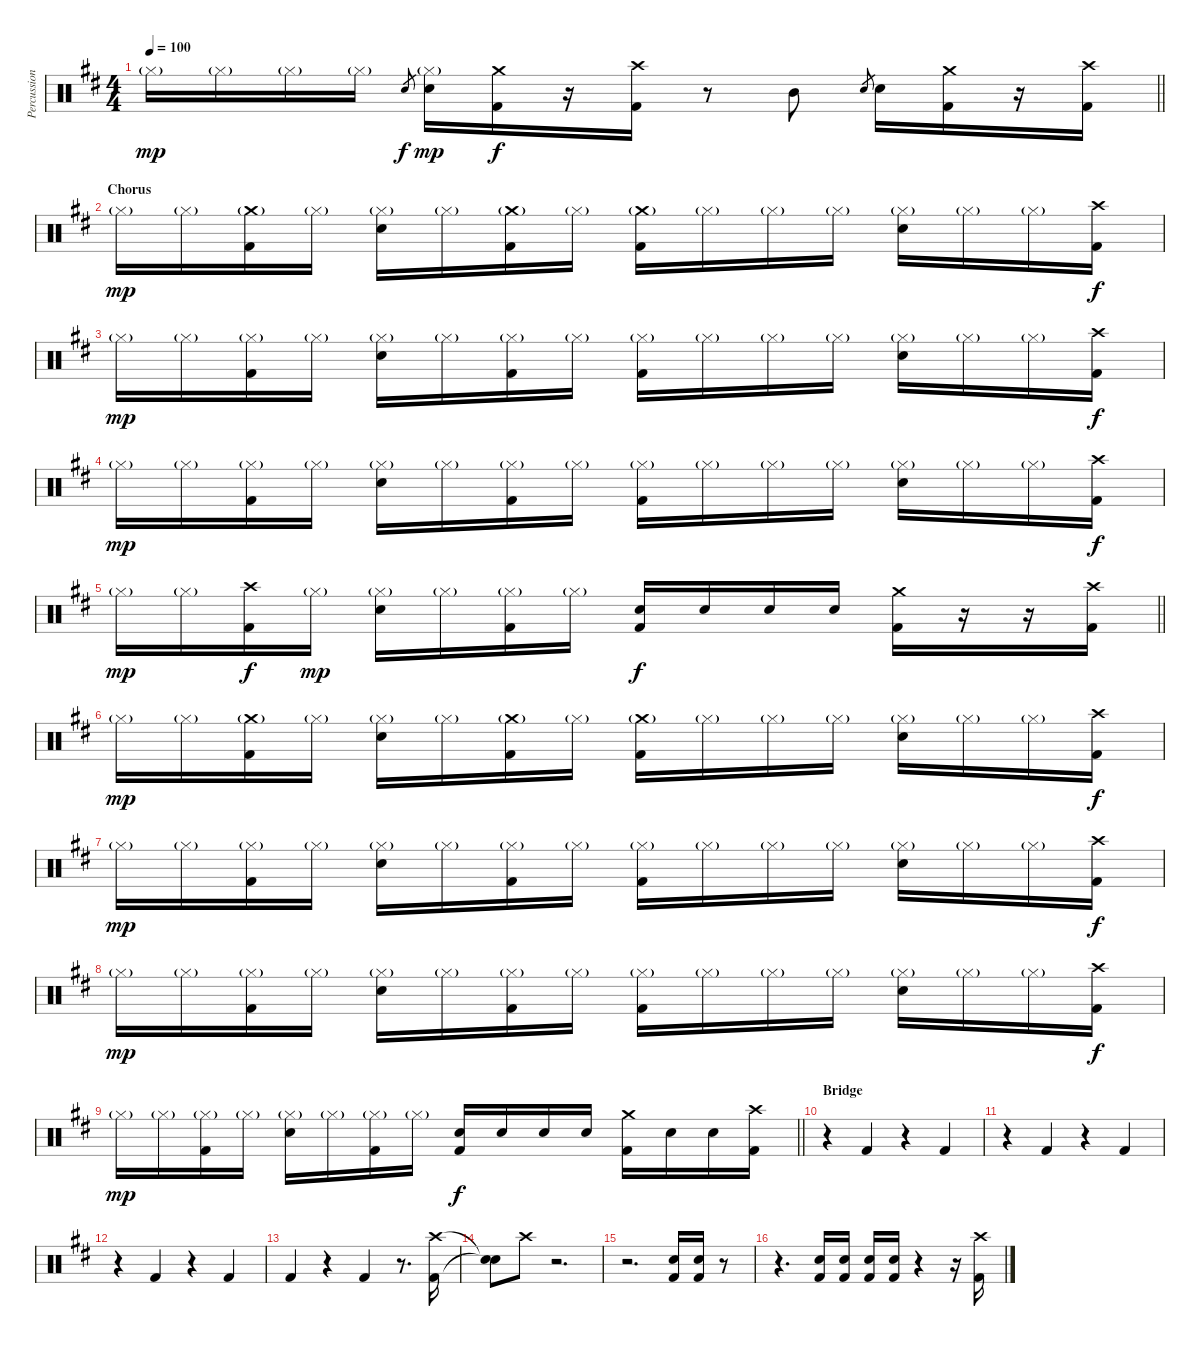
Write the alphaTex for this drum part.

\track ("Percussion" "Percussion") {instrument percussion}
\staff {score}
\articulation defaults
\ts (4 4)
\tempo 100
\clef neutral
\barLineRight lightlight
\ks bminor "Hi-Hat (closed)"{g}.16{dy mp} "Hi-Hat (closed)"{g}.16 "Hi-Hat (closed)"{g}.16 "Hi-Hat (closed)"{g}.16 "Snare (hit) 2"{x}.8{gr dy f}
("Hi-Hat (closed)"{g} "Snare (hit) 2").16{dy mp} ("Crash medium (hit)" "Kick (hit) 2").16{dy f} r.16 ("Crash high (hit)" "Kick (hit) 2").16 r.8 "Mid Tom (hit)".8 "Snare (hit) 2".8{gr} "Snare (hit) 2".16 ("Crash medium (hit)" "Kick (hit) 2").16 r.16 ("Crash high (hit)" "Kick (hit) 2").16 |
\section ("" "Chorus")
"Hi-Hat (closed)"{g}.16{dy mp} "Hi-Hat (closed)"{g}.16 ("Crash medium (hit)"{g} "Kick (hit) 2").16 "Hi-Hat (closed)"{g}.16 ("Hi-Hat (closed)"{g} "Snare (hit) 2").16 "Hi-Hat (closed)"{g}.16 ("Crash medium (hit)"{g} "Kick (hit) 2").16 "Hi-Hat (closed)"{g}.16 ("Crash medium (hit)"{g} "Kick (hit) 2").16 "Hi-Hat (closed)"{g}.16 "Hi-Hat (closed)"{g}.16 "Hi-Hat (closed)"{g}.16 ("Hi-Hat (closed)"{g} "Snare (hit) 2").16 "Hi-Hat (closed)"{g}.16 "Hi-Hat (closed)"{g}.16 ("Crash high (hit)" "Kick (hit) 2").16{dy f} |
"Hi-Hat (closed)"{g}.16{dy mp} "Hi-Hat (closed)"{g}.16 ("Hi-Hat (closed)"{g} "Kick (hit) 2").16 "Hi-Hat (closed)"{g}.16 ("Hi-Hat (closed)"{g} "Snare (hit) 2").16 "Hi-Hat (closed)"{g}.16 ("Hi-Hat (closed)"{g} "Kick (hit) 2").16 "Hi-Hat (closed)"{g}.16 ("Hi-Hat (closed)"{g} "Kick (hit) 2").16 "Hi-Hat (closed)"{g}.16 "Hi-Hat (closed)"{g}.16 "Hi-Hat (closed)"{g}.16 ("Hi-Hat (closed)"{g} "Snare (hit) 2").16 "Hi-Hat (closed)"{g}.16 "Hi-Hat (closed)"{g}.16 ("Crash high (hit)" "Kick (hit) 2").16{dy f} |
"Hi-Hat (closed)"{g}.16{dy mp} "Hi-Hat (closed)"{g}.16 ("Hi-Hat (closed)"{g} "Kick (hit) 2").16 "Hi-Hat (closed)"{g}.16 ("Hi-Hat (closed)"{g} "Snare (hit) 2").16 "Hi-Hat (closed)"{g}.16 ("Hi-Hat (closed)"{g} "Kick (hit) 2").16 "Hi-Hat (closed)"{g}.16 ("Hi-Hat (closed)"{g} "Kick (hit) 2").16 "Hi-Hat (closed)"{g}.16 "Hi-Hat (closed)"{g}.16 "Hi-Hat (closed)"{g}.16 ("Hi-Hat (closed)"{g} "Snare (hit) 2").16 "Hi-Hat (closed)"{g}.16 "Hi-Hat (closed)"{g}.16 ("Crash high (hit)" "Kick (hit) 2").16{dy f} |
\barLineRight lightlight "Hi-Hat (closed)"{g}.16{dy mp} "Hi-Hat (closed)"{g}.16
("Crash high (hit)" "Kick (hit) 2").16{dy f} "Hi-Hat (closed)"{g}.16{dy mp} ("Hi-Hat (closed)"{g} "Snare (hit) 2").16 "Hi-Hat (closed)"{g}.16 ("Hi-Hat (closed)"{g} "Kick (hit) 2").16 "Hi-Hat (closed)"{g}.16 ("Snare (hit) 2" "Kick (hit) 2").16{dy f} "Snare (hit) 2".16 "Snare (hit) 2".16 "Snare (hit) 2".16 ("Crash medium (hit)" "Kick (hit) 2").16 r.16 r.16 ("Crash high (hit)" "Kick (hit) 2").16 |
"Hi-Hat (closed)"{g}.16{dy mp} "Hi-Hat (closed)"{g}.16 ("Crash medium (hit)"{g} "Kick (hit) 2").16 "Hi-Hat (closed)"{g}.16 ("Hi-Hat (closed)"{g} "Snare (hit) 2").16 "Hi-Hat (closed)"{g}.16 ("Crash medium (hit)"{g} "Kick (hit) 2").16 "Hi-Hat (closed)"{g}.16 ("Crash medium (hit)"{g} "Kick (hit) 2").16 "Hi-Hat (closed)"{g}.16 "Hi-Hat (closed)"{g}.16 "Hi-Hat (closed)"{g}.16 ("Hi-Hat (closed)"{g} "Snare (hit) 2").16 "Hi-Hat (closed)"{g}.16 "Hi-Hat (closed)"{g}.16 ("Crash high (hit)" "Kick (hit) 2").16{dy f} |
"Hi-Hat (closed)"{g}.16{dy mp} "Hi-Hat (closed)"{g}.16 ("Hi-Hat (closed)"{g} "Kick (hit) 2").16 "Hi-Hat (closed)"{g}.16 ("Hi-Hat (closed)"{g} "Snare (hit) 2").16 "Hi-Hat (closed)"{g}.16 ("Hi-Hat (closed)"{g} "Kick (hit) 2").16 "Hi-Hat (closed)"{g}.16 ("Hi-Hat (closed)"{g} "Kick (hit) 2").16 "Hi-Hat (closed)"{g}.16 "Hi-Hat (closed)"{g}.16 "Hi-Hat (closed)"{g}.16 ("Hi-Hat (closed)"{g} "Snare (hit) 2").16 "Hi-Hat (closed)"{g}.16 "Hi-Hat (closed)"{g}.16 ("Crash high (hit)" "Kick (hit) 2").16{dy f} |
"Hi-Hat (closed)"{g}.16{dy mp} "Hi-Hat (closed)"{g}.16 ("Hi-Hat (closed)"{g} "Kick (hit) 2").16 "Hi-Hat (closed)"{g}.16 ("Hi-Hat (closed)"{g} "Snare (hit) 2").16 "Hi-Hat (closed)"{g}.16 ("Hi-Hat (closed)"{g} "Kick (hit) 2").16 "Hi-Hat (closed)"{g}.16 ("Hi-Hat (closed)"{g} "Kick (hit) 2").16 "Hi-Hat (closed)"{g}.16 "Hi-Hat (closed)"{g}.16 "Hi-Hat (closed)"{g}.16 ("Hi-Hat (closed)"{g} "Snare (hit) 2").16 "Hi-Hat (closed)"{g}.16 "Hi-Hat (closed)"{g}.16 ("Crash high (hit)" "Kick (hit) 2").16{dy f} |
\barLineRight lightlight "Hi-Hat (closed)"{g}.16{dy mp} "Hi-Hat (closed)"{g}.16
("Hi-Hat (closed)"{g} "Kick (hit) 2").16 "Hi-Hat (closed)"{g}.16 ("Hi-Hat (closed)"{g} "Snare (hit) 2").16 "Hi-Hat (closed)"{g}.16 ("Hi-Hat (closed)"{g} "Kick (hit) 2").16 "Hi-Hat (closed)"{g}.16 ("Snare (hit) 2" "Kick (hit) 2").16{dy f} "Snare (hit) 2".16 "Snare (hit) 2".16 "Snare (hit) 2".16 ("Crash medium (hit)" "Kick (hit) 2").16 "Snare (hit) 2".16 "Snare (hit) 2".16 ("Crash high (hit)" "Kick (hit) 2").16 |
\section ("" "Bridge")
r.4 "Kick (hit) 2".4 r.4 "Kick (hit) 2".4 |
r.4 "Kick (hit) 2".4 r.4 "Kick (hit) 2".4 |
r.4 "Kick (hit) 2".4 r.4 "Kick (hit) 2".4 |
"Kick (hit) 2".4 r.4 "Kick (hit) 2".4 r.8{d} ("Crash high (hit)" "Kick (hit) 2").16 |
("Snare (hit)"{t} "Snare (hit)"{t}).8 "Crash high (hit)".8 r.2{d} |
r.2{d} ("Snare (hit) 2" "Kick (hit) 2").16 ("Snare (hit) 2" "Kick (hit) 2").16 r.8 |
r.4{d} ("Snare (hit) 2" "Kick (hit) 2").16 ("Snare (hit) 2" "Kick (hit) 2").16 ("Snare (hit) 2" "Kick (hit) 2").16 ("Snare (hit) 2" "Kick (hit) 2").16 r.4 r.16 ("Crash high (hit)" "Kick (hit) 2").16
